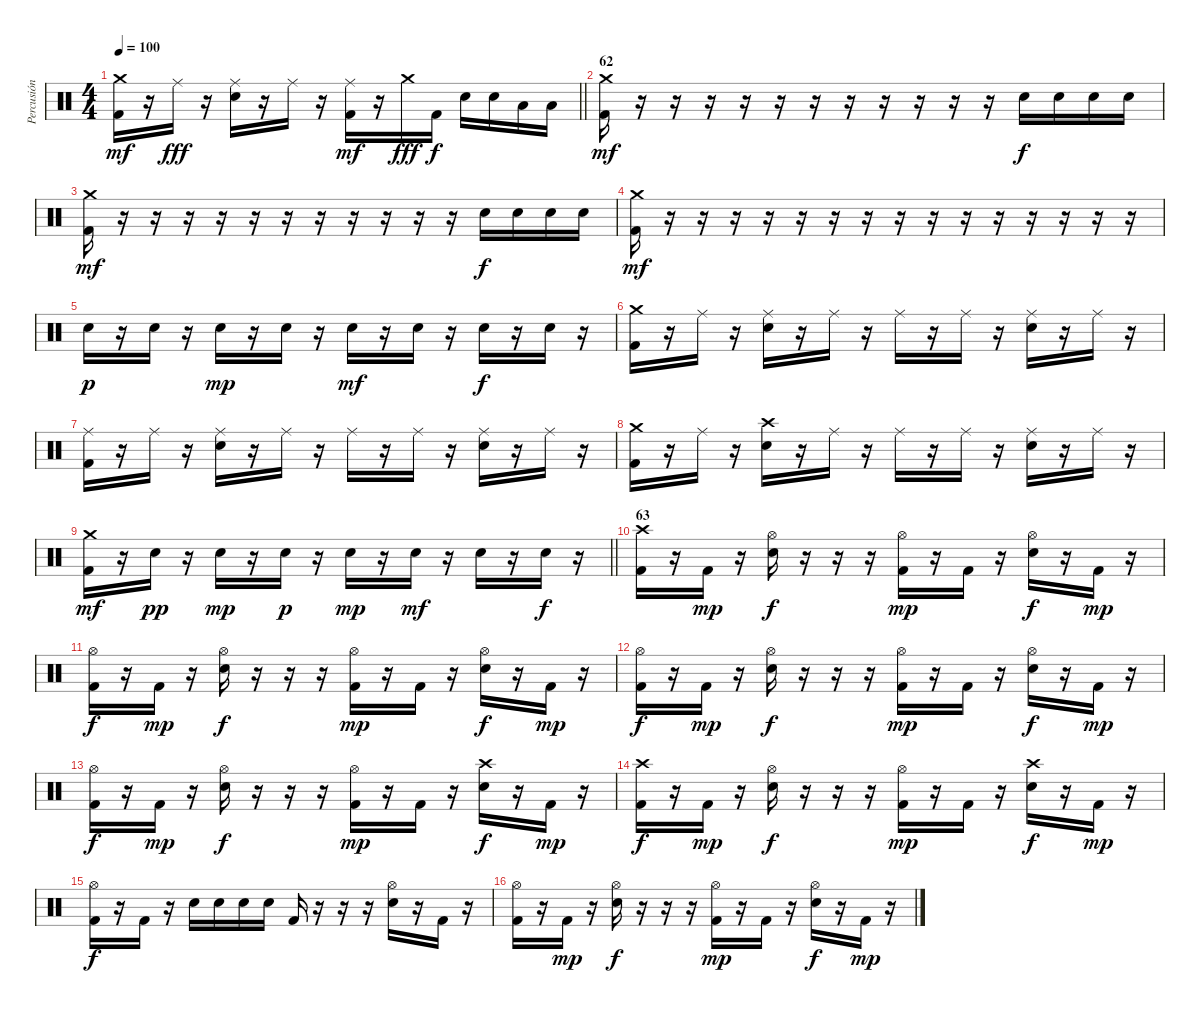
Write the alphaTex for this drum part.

\track ("Percusión" "Percusión") {instrument percussion}
\staff {score}
\articulation defaults
\ts (4 4)
\tempo 100
\clef neutral
\barLineRight lightlight
\ks c
("Crash medium (hit)" "Kick (hit) 2").16{dy mf} r.16 "Ride (middle)".16{dy fff} r.16 ("Ride (middle)" "Electric Snare (hit)").16 r.16 "Ride (middle)".16 r.16 ("Ride (middle)" "Kick (hit) 2").16{dy mf} r.16 "Crash medium (hit)".16{dy fff} "Kick (hit) 2".16{dy f} "Electric Snare (hit)".16 "Electric Snare (hit)".16 "Low Tom (hit)".16 "Low Tom (hit)".16 |
\section ("" "62")
("Crash medium (hit)" "Kick (hit) 2").16{dy mf} r.16 r.16 r.16 r.16 r.16 r.16 r.16 r.16 r.16 r.16 r.16 "Electric Snare (hit)".16{dy f} "Electric Snare (hit)".16 "Electric Snare (hit)".16 "Electric Snare (hit)".16 |
("Crash medium (hit)" "Kick (hit) 2").16{dy mf} r.16 r.16 r.16 r.16 r.16 r.16 r.16 r.16 r.16 r.16 r.16 "Electric Snare (hit)".16{dy f} "Electric Snare (hit)".16 "Electric Snare (hit)".16 "Electric Snare (hit)".16 |
("Crash medium (hit)" "Kick (hit) 2").16{dy mf} r.16 r.16 r.16 r.16 r.16 r.16 r.16 r.16 r.16 r.16 r.16 r.16 r.16 r.16 r.16 |
"Electric Snare (hit)".16{dy p} r.16 "Electric Snare (hit)".16 r.16 "Electric Snare (hit)".16{dy mp} r.16 "Electric Snare (hit)".16 r.16 "Electric Snare (hit)".16{dy mf} r.16 "Electric Snare (hit)".16 r.16 "Electric Snare (hit)".16{dy f} r.16 "Electric Snare (hit)".16 r.16 |
("Crash medium (hit)" "Kick (hit) 2").16 r.16 "Ride (middle)".16 r.16 ("Ride (middle)" "Electric Snare (hit)").16 r.16 "Ride (middle)".16 r.16 "Ride (middle)".16 r.16 "Ride (middle)".16 r.16 ("Ride (middle)" "Electric Snare (hit)").16 r.16 "Ride (middle)".16 r.16 |
("Ride (middle)" "Kick (hit) 2").16 r.16 "Ride (middle)".16 r.16 ("Ride (middle)" "Electric Snare (hit)").16 r.16 "Ride (middle)".16 r.16 "Ride (middle)".16 r.16 "Ride (middle)".16 r.16 ("Ride (middle)" "Electric Snare (hit)").16 r.16 "Ride (middle)".16 r.16 |
("Crash medium (hit)" "Kick (hit) 2").16 r.16 "Ride (middle)".16 r.16 ("Crash high (hit)" "Electric Snare (hit)").16 r.16 "Ride (middle)".16 r.16 "Ride (middle)".16 r.16 "Ride (middle)".16 r.16 ("Ride (middle)" "Electric Snare (hit)").16 r.16 "Ride (middle)".16 r.16 |
\barLineRight lightlight
("Crash medium (hit)" "Kick (hit) 2").16{dy mf} r.16 "Electric Snare (hit)".16{dy pp} r.16 "Electric Snare (hit)".16{dy mp} r.16 "Electric Snare (hit)".16{dy p} r.16 "Electric Snare (hit)".16{dy mp} r.16 "Electric Snare (hit)".16{dy mf} r.16 "Electric Snare (hit)".16 r.16 "Electric Snare (hit)".16{dy f} r.16 |
\section ("" "63")
("Crash high (hit)" "Kick (hit) 2").16 r.16 "Kick (hit) 2".16{dy mp} r.16 ("Hi-Hat (open)" "Electric Snare (hit)").16{dy f} r.16 r.16 r.16 ("Hi-Hat (open)" "Kick (hit) 2").16{dy mp} r.16 "Kick (hit) 2".16 r.16 ("Hi-Hat (open)" "Electric Snare (hit)").16{dy f} r.16 "Kick (hit) 2".16{dy mp} r.16 |
("Hi-Hat (open)" "Kick (hit) 2").16{dy f} r.16 "Kick (hit) 2".16{dy mp} r.16 ("Hi-Hat (open)" "Electric Snare (hit)").16{dy f} r.16 r.16 r.16 ("Hi-Hat (open)" "Kick (hit) 2").16{dy mp} r.16 "Kick (hit) 2".16 r.16 ("Hi-Hat (open)" "Electric Snare (hit)").16{dy f} r.16 "Kick (hit) 2".16{dy mp} r.16 |
("Hi-Hat (open)" "Kick (hit) 2").16{dy f} r.16 "Kick (hit) 2".16{dy mp} r.16 ("Hi-Hat (open)" "Electric Snare (hit)").16{dy f} r.16 r.16 r.16 ("Hi-Hat (open)" "Kick (hit) 2").16{dy mp} r.16 "Kick (hit) 2".16 r.16 ("Hi-Hat (open)" "Electric Snare (hit)").16{dy f} r.16 "Kick (hit) 2".16{dy mp} r.16 |
("Hi-Hat (open)" "Kick (hit) 2").16{dy f} r.16 "Kick (hit) 2".16{dy mp} r.16 ("Hi-Hat (open)" "Electric Snare (hit)").16{dy f} r.16 r.16 r.16 ("Hi-Hat (open)" "Kick (hit) 2").16{dy mp} r.16 "Kick (hit) 2".16 r.16 ("Crash high (hit)" "Electric Snare (hit)").16{dy f} r.16 "Kick (hit) 2".16{dy mp} r.16 |
("Crash high (hit)" "Kick (hit) 2").16{dy f} r.16 "Kick (hit) 2".16{dy mp} r.16 ("Hi-Hat (open)" "Electric Snare (hit)").16{dy f} r.16 r.16 r.16 ("Hi-Hat (open)" "Kick (hit) 2").16{dy mp} r.16 "Kick (hit) 2".16 r.16 ("Crash high (hit)" "Electric Snare (hit)").16{dy f} r.16 "Kick (hit) 2".16{dy mp} r.16 |
("Hi-Hat (open)" "Kick (hit) 2").16{dy f} r.16 "Kick (hit) 2".16 r.16 "Electric Snare (hit)".16 "Electric Snare (hit)".16 "Electric Snare (hit)".16 "Electric Snare (hit)".16 "Kick (hit) 2".16 r.16 r.16 r.16 ("Hi-Hat (open)" "Electric Snare (hit)").16 r.16 "Kick (hit) 2".16 r.16 |
("Hi-Hat (open)" "Kick (hit) 2").16 r.16 "Kick (hit) 2".16{dy mp} r.16 ("Hi-Hat (open)" "Electric Snare (hit)").16{dy f} r.16 r.16 r.16 ("Hi-Hat (open)" "Kick (hit) 2").16{dy mp} r.16 "Kick (hit) 2".16 r.16 ("Hi-Hat (open)" "Electric Snare (hit)").16{dy f} r.16 "Kick (hit) 2".16{dy mp} r.16
